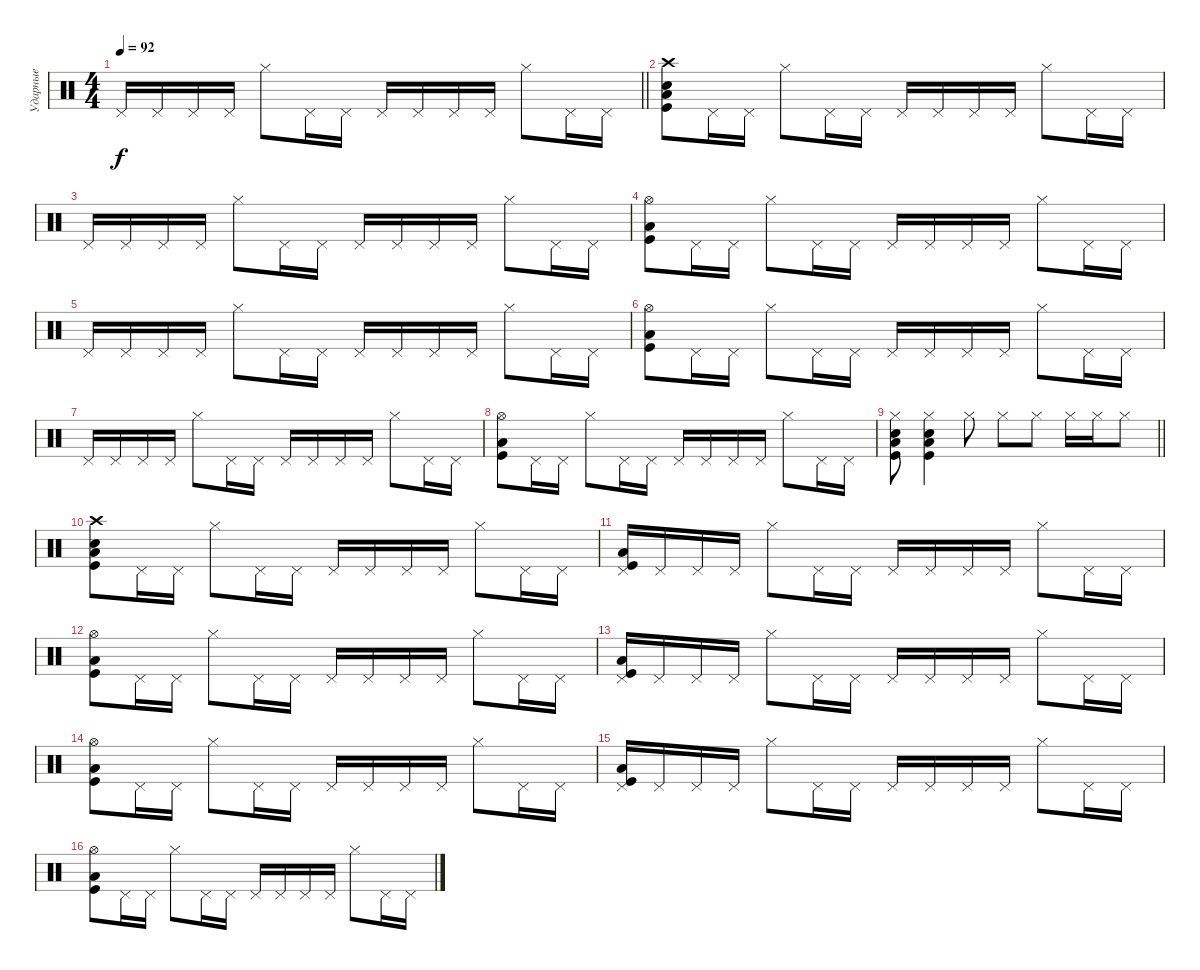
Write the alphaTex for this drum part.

\track ("Ударные" "Ударные") {instrument percussion}
\staff {score}
\articulation defaults
\ts (4 4)
\tempo 92
\clef neutral
\barLineRight lightlight
\ks c "Pedal Hi-Hat (hit)".16{dy f} "Pedal Hi-Hat (hit)".16 "Pedal Hi-Hat (hit)".16 "Pedal Hi-Hat (hit)".16 "Hi-Hat (closed)".8 "Pedal Hi-Hat (hit)".16 "Pedal Hi-Hat (hit)".16 "Pedal Hi-Hat (hit)".16 "Pedal Hi-Hat (hit)".16 "Pedal Hi-Hat (hit)".16 "Pedal Hi-Hat (hit)".16 "Hi-Hat (closed)".8 "Pedal Hi-Hat (hit)".16 "Pedal Hi-Hat (hit)".16
|
("Crash high (hit)" "Electric Snare (hit)" "Low Tom (hit)" "Kick (hit)").8 "Pedal Hi-Hat (hit)".16 "Pedal Hi-Hat (hit)".16 "Hi-Hat (closed)".8 "Pedal Hi-Hat (hit)".16 "Pedal Hi-Hat (hit)".16 "Pedal Hi-Hat (hit)".16 "Pedal Hi-Hat (hit)".16 "Pedal Hi-Hat (hit)".16 "Pedal Hi-Hat (hit)".16 "Hi-Hat (closed)".8 "Pedal Hi-Hat (hit)".16 "Pedal Hi-Hat (hit)".16 |
"Pedal Hi-Hat (hit)".16 "Pedal Hi-Hat (hit)".16 "Pedal Hi-Hat (hit)".16 "Pedal Hi-Hat (hit)".16 "Hi-Hat (closed)".8 "Pedal Hi-Hat (hit)".16 "Pedal Hi-Hat (hit)".16 "Pedal Hi-Hat (hit)".16 "Pedal Hi-Hat (hit)".16 "Pedal Hi-Hat (hit)".16 "Pedal Hi-Hat (hit)".16 "Hi-Hat (closed)".8 "Pedal Hi-Hat (hit)".16 "Pedal Hi-Hat (hit)".16 |
("Hi-Hat (open)" "Low Tom (hit)" "Kick (hit)").8 "Pedal Hi-Hat (hit)".16 "Pedal Hi-Hat (hit)".16 "Hi-Hat (closed)".8 "Pedal Hi-Hat (hit)".16 "Pedal Hi-Hat (hit)".16 "Pedal Hi-Hat (hit)".16 "Pedal Hi-Hat (hit)".16 "Pedal Hi-Hat (hit)".16 "Pedal Hi-Hat (hit)".16 "Hi-Hat (closed)".8 "Pedal Hi-Hat (hit)".16 "Pedal Hi-Hat (hit)".16 |
"Pedal Hi-Hat (hit)".16 "Pedal Hi-Hat (hit)".16 "Pedal Hi-Hat (hit)".16 "Pedal Hi-Hat (hit)".16 "Hi-Hat (closed)".8 "Pedal Hi-Hat (hit)".16 "Pedal Hi-Hat (hit)".16 "Pedal Hi-Hat (hit)".16 "Pedal Hi-Hat (hit)".16 "Pedal Hi-Hat (hit)".16 "Pedal Hi-Hat (hit)".16 "Hi-Hat (closed)".8 "Pedal Hi-Hat (hit)".16 "Pedal Hi-Hat (hit)".16 |
("Hi-Hat (open)" "Low Tom (hit)" "Kick (hit)").8 "Pedal Hi-Hat (hit)".16 "Pedal Hi-Hat (hit)".16 "Hi-Hat (closed)".8 "Pedal Hi-Hat (hit)".16 "Pedal Hi-Hat (hit)".16 "Pedal Hi-Hat (hit)".16 "Pedal Hi-Hat (hit)".16 "Pedal Hi-Hat (hit)".16 "Pedal Hi-Hat (hit)".16 "Hi-Hat (closed)".8 "Pedal Hi-Hat (hit)".16 "Pedal Hi-Hat (hit)".16 |
"Pedal Hi-Hat (hit)".16 "Pedal Hi-Hat (hit)".16 "Pedal Hi-Hat (hit)".16 "Pedal Hi-Hat (hit)".16 "Hi-Hat (closed)".8 "Pedal Hi-Hat (hit)".16 "Pedal Hi-Hat (hit)".16 "Pedal Hi-Hat (hit)".16 "Pedal Hi-Hat (hit)".16 "Pedal Hi-Hat (hit)".16 "Pedal Hi-Hat (hit)".16 "Hi-Hat (closed)".8 "Pedal Hi-Hat (hit)".16 "Pedal Hi-Hat (hit)".16 |
("Hi-Hat (open)" "Low Tom (hit)" "Kick (hit)").8 "Pedal Hi-Hat (hit)".16 "Pedal Hi-Hat (hit)".16 "Hi-Hat (closed)".8 "Pedal Hi-Hat (hit)".16 "Pedal Hi-Hat (hit)".16 "Pedal Hi-Hat (hit)".16 "Pedal Hi-Hat (hit)".16 "Pedal Hi-Hat (hit)".16 "Pedal Hi-Hat (hit)".16 "Hi-Hat (closed)".8 "Pedal Hi-Hat (hit)".16 "Pedal Hi-Hat (hit)".16 |
\barLineRight lightlight
("Hi-Hat (closed)" "Electric Snare (hit)" "Low Tom (hit)" "Kick (hit)").8 ("Hi-Hat (closed)" "Electric Snare (hit)" "Low Tom (hit)" "Kick (hit)").4 "Hi-Hat (closed)".8 "Hi-Hat (closed)".8 "Hi-Hat (closed)".8 "Hi-Hat (closed)".16 "Hi-Hat (closed)".16 "Hi-Hat (closed)".8 |
("Crash high (hit)" "Electric Snare (hit)" "Low Tom (hit)" "Kick (hit)").8 "Pedal Hi-Hat (hit)".16 "Pedal Hi-Hat (hit)".16 "Hi-Hat (closed)".8 "Pedal Hi-Hat (hit)".16 "Pedal Hi-Hat (hit)".16 "Pedal Hi-Hat (hit)".16 "Pedal Hi-Hat (hit)".16 "Pedal Hi-Hat (hit)".16 "Pedal Hi-Hat (hit)".16 "Hi-Hat (closed)".8 "Pedal Hi-Hat (hit)".16 "Pedal Hi-Hat (hit)".16 |
("Pedal Hi-Hat (hit)" "Low Tom (hit)" "Kick (hit)").16 "Pedal Hi-Hat (hit)".16 "Pedal Hi-Hat (hit)".16 "Pedal Hi-Hat (hit)".16 "Hi-Hat (closed)".8 "Pedal Hi-Hat (hit)".16 "Pedal Hi-Hat (hit)".16 "Pedal Hi-Hat (hit)".16 "Pedal Hi-Hat (hit)".16 "Pedal Hi-Hat (hit)".16 "Pedal Hi-Hat (hit)".16 "Hi-Hat (closed)".8 "Pedal Hi-Hat (hit)".16 "Pedal Hi-Hat (hit)".16 |
("Hi-Hat (open)" "Low Tom (hit)" "Kick (hit)").8 "Pedal Hi-Hat (hit)".16 "Pedal Hi-Hat (hit)".16 "Hi-Hat (closed)".8 "Pedal Hi-Hat (hit)".16 "Pedal Hi-Hat (hit)".16 "Pedal Hi-Hat (hit)".16 "Pedal Hi-Hat (hit)".16 "Pedal Hi-Hat (hit)".16 "Pedal Hi-Hat (hit)".16 "Hi-Hat (closed)".8 "Pedal Hi-Hat (hit)".16 "Pedal Hi-Hat (hit)".16 |
("Pedal Hi-Hat (hit)" "Low Tom (hit)" "Kick (hit)").16 "Pedal Hi-Hat (hit)".16 "Pedal Hi-Hat (hit)".16 "Pedal Hi-Hat (hit)".16 "Hi-Hat (closed)".8 "Pedal Hi-Hat (hit)".16 "Pedal Hi-Hat (hit)".16 "Pedal Hi-Hat (hit)".16 "Pedal Hi-Hat (hit)".16 "Pedal Hi-Hat (hit)".16 "Pedal Hi-Hat (hit)".16 "Hi-Hat (closed)".8 "Pedal Hi-Hat (hit)".16 "Pedal Hi-Hat (hit)".16 |
("Hi-Hat (open)" "Low Tom (hit)" "Kick (hit)").8 "Pedal Hi-Hat (hit)".16 "Pedal Hi-Hat (hit)".16 "Hi-Hat (closed)".8 "Pedal Hi-Hat (hit)".16 "Pedal Hi-Hat (hit)".16 "Pedal Hi-Hat (hit)".16 "Pedal Hi-Hat (hit)".16 "Pedal Hi-Hat (hit)".16 "Pedal Hi-Hat (hit)".16 "Hi-Hat (closed)".8 "Pedal Hi-Hat (hit)".16 "Pedal Hi-Hat (hit)".16 |
("Pedal Hi-Hat (hit)" "Low Tom (hit)" "Kick (hit)").16 "Pedal Hi-Hat (hit)".16 "Pedal Hi-Hat (hit)".16 "Pedal Hi-Hat (hit)".16 "Hi-Hat (closed)".8 "Pedal Hi-Hat (hit)".16 "Pedal Hi-Hat (hit)".16 "Pedal Hi-Hat (hit)".16 "Pedal Hi-Hat (hit)".16 "Pedal Hi-Hat (hit)".16 "Pedal Hi-Hat (hit)".16 "Hi-Hat (closed)".8 "Pedal Hi-Hat (hit)".16 "Pedal Hi-Hat (hit)".16 |
("Hi-Hat (open)" "Low Tom (hit)" "Kick (hit)").8 "Pedal Hi-Hat (hit)".16 "Pedal Hi-Hat (hit)".16 "Hi-Hat (closed)".8 "Pedal Hi-Hat (hit)".16 "Pedal Hi-Hat (hit)".16 "Pedal Hi-Hat (hit)".16 "Pedal Hi-Hat (hit)".16 "Pedal Hi-Hat (hit)".16 "Pedal Hi-Hat (hit)".16 "Hi-Hat (closed)".8 "Pedal Hi-Hat (hit)".16 "Pedal Hi-Hat (hit)".16
